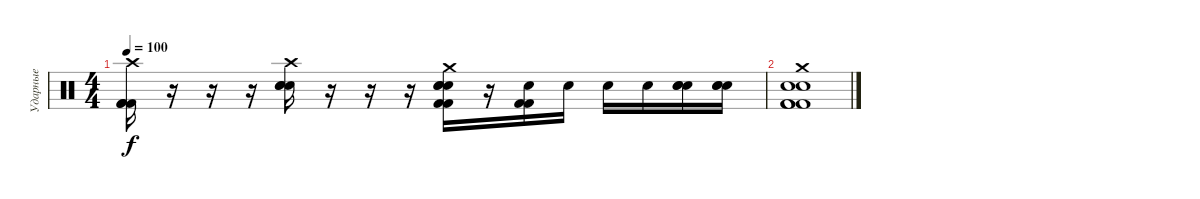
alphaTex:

\track ("Ударные" "Ударные") {instrument percussion}
\staff {score}
\articulation defaults
\ts (4 4)
\tempo 100
\clef neutral
\ks c
("Crash high (hit)" "Kick (hit) 2" "Kick (hit) 2" "Kick (hit) 2").16{dy f} r.16 r.16 r.16 ("Crash high (hit)" "Electric Snare (hit)" "Electric Snare (hit)" "Electric Snare (hit)").16 r.16 r.16 r.16 ("Crash medium (hit)" "Electric Snare (hit)" "Electric Snare (hit)" "Electric Snare (hit)" "Kick (hit) 2" "Kick (hit) 2").16 r.16 ("Electric Snare (hit)" "Kick (hit) 2" "Kick (hit) 2").16 "Electric Snare (hit)".16 "Electric Snare (hit)".16 "Electric Snare (hit)".16 ("Electric Snare (hit)" "Electric Snare (hit)" "Electric Snare (hit)").16 ("Electric Snare (hit)" "Electric Snare (hit)" "Electric Snare (hit)").16 |
("Crash medium (hit)" "Electric Snare (hit)" "Electric Snare (hit)" "Kick (hit) 2" "Kick (hit) 2" "Kick (hit) 2").1
